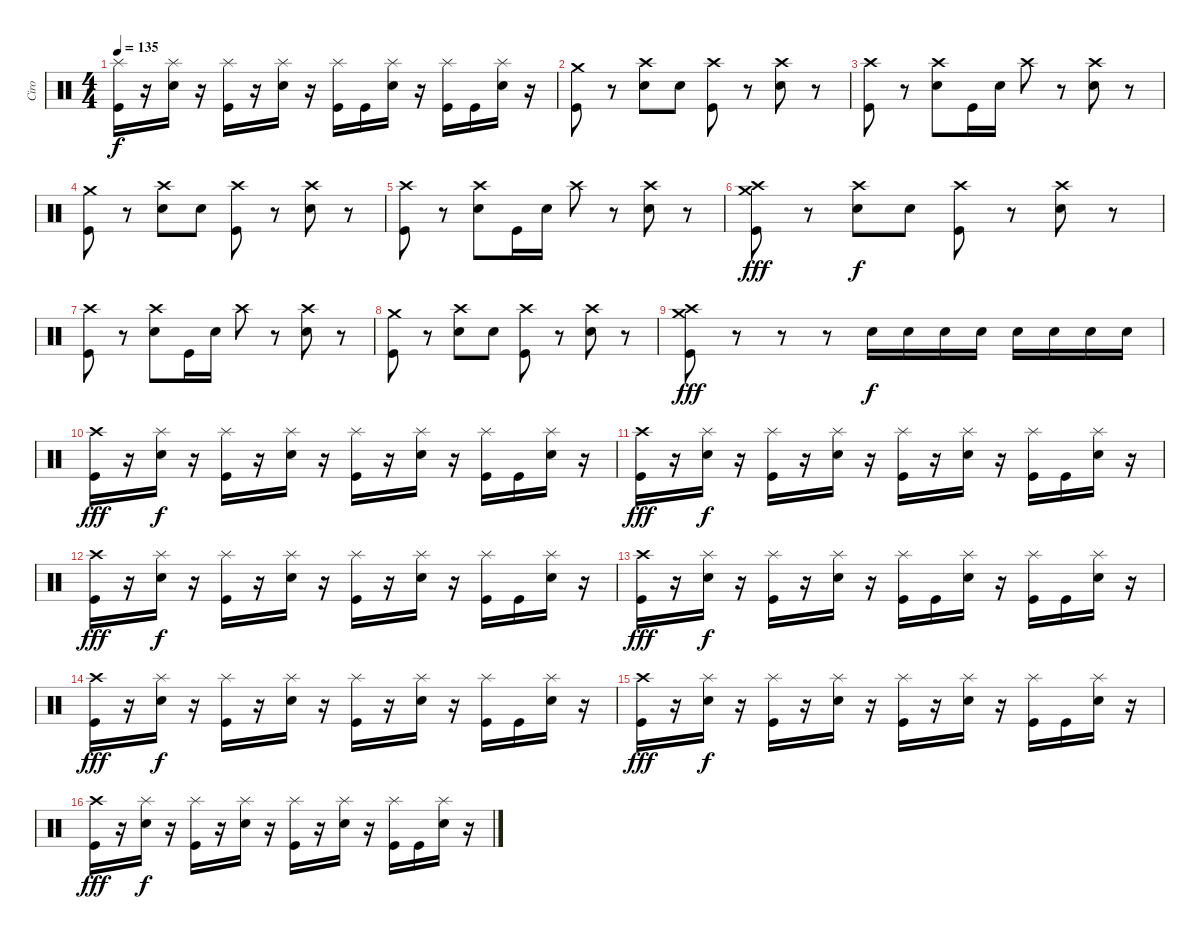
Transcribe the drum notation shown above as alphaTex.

\track ("Ciro" "Ciro") {instrument percussion}
\staff {score}
\articulation defaults
\ts (4 4)
\tempo 135
\clef neutral
\ks c
("Splash (hit)" "Kick (hit)").16{dy f} r.16 ("Splash (hit)" "Electric Snare (hit)").16 r.16 ("Splash (hit)" "Kick (hit)").16 r.16 ("Splash (hit)" "Electric Snare (hit)").16 r.16 ("Splash (hit)" "Kick (hit)").16 "Kick (hit)".16 ("Splash (hit)" "Electric Snare (hit)").16 r.16 ("Splash (hit)" "Kick (hit)").16 "Kick (hit)".16 ("Splash (hit)" "Electric Snare (hit)").16 r.16 |
("Crash medium (hit)" "Kick (hit)").8 r.8 ("Crash high (hit)" "Electric Snare (hit)").8 "Electric Snare (hit)".8 ("Crash high (hit)" "Kick (hit)").8 r.8 ("Crash high (hit)" "Electric Snare (hit)").8 r.8 |
("Crash high (hit)" "Kick (hit)").8 r.8 ("Crash high (hit)" "Electric Snare (hit)").8 "Kick (hit)".16 "Electric Snare (hit)".16 "Crash high (hit)".8 r.8 ("Crash high (hit)" "Electric Snare (hit)").8 r.8 |
("Crash medium (hit)" "Kick (hit)").8 r.8 ("Crash high (hit)" "Electric Snare (hit)").8 "Electric Snare (hit)".8 ("Crash high (hit)" "Kick (hit)").8 r.8 ("Crash high (hit)" "Electric Snare (hit)").8 r.8 |
("Crash high (hit)" "Kick (hit)").8 r.8 ("Crash high (hit)" "Electric Snare (hit)").8 "Kick (hit)".16 "Electric Snare (hit)".16 "Crash high (hit)".8 r.8 ("Crash high (hit)" "Electric Snare (hit)").8 r.8 |
("Crash medium (hit)" "Crash high (hit)" "Kick (hit)").8{dy fff} r.8 ("Crash high (hit)" "Electric Snare (hit)").8{dy f} "Electric Snare (hit)".8 ("Crash high (hit)" "Kick (hit)").8 r.8 ("Crash high (hit)" "Electric Snare (hit)").8 r.8 |
("Crash high (hit)" "Kick (hit)").8 r.8 ("Crash high (hit)" "Electric Snare (hit)").8 "Kick (hit)".16 "Electric Snare (hit)".16 "Crash high (hit)".8 r.8 ("Crash high (hit)" "Electric Snare (hit)").8 r.8 |
("Crash medium (hit)" "Kick (hit)").8 r.8 ("Crash high (hit)" "Electric Snare (hit)").8 "Electric Snare (hit)".8 ("Crash high (hit)" "Kick (hit)").8 r.8 ("Crash high (hit)" "Electric Snare (hit)").8 r.8 |
("Crash high (hit)" "Crash medium (hit)" "Kick (hit)").8{dy fff} r.8 r.8 r.8 "Electric Snare (hit)".16{dy f} "Electric Snare (hit)".16 "Electric Snare (hit)".16 "Electric Snare (hit)".16 "Electric Snare (hit)".16 "Electric Snare (hit)".16 "Electric Snare (hit)".16 "Electric Snare (hit)".16 |
("Crash high (hit)" "Kick (hit)").16{dy fff} r.16 ("Splash (hit)" "Electric Snare (hit)").16{dy f} r.16 ("Splash (hit)" "Kick (hit)").16 r.16 ("Splash (hit)" "Electric Snare (hit)").16 r.16 ("Splash (hit)" "Kick (hit)").16 r.16 ("Splash (hit)" "Electric Snare (hit)").16 r.16 ("Splash (hit)" "Kick (hit)").16 "Kick (hit)".16 ("Splash (hit)" "Electric Snare (hit)").16 r.16 |
("Crash high (hit)" "Kick (hit)").16{dy fff} r.16 ("Splash (hit)" "Electric Snare (hit)").16{dy f} r.16 ("Splash (hit)" "Kick (hit)").16 r.16 ("Splash (hit)" "Electric Snare (hit)").16 r.16 ("Splash (hit)" "Kick (hit)").16 r.16 ("Splash (hit)" "Electric Snare (hit)").16 r.16 ("Splash (hit)" "Kick (hit)").16 "Kick (hit)".16 ("Splash (hit)" "Electric Snare (hit)").16 r.16 |
("Crash high (hit)" "Kick (hit)").16{dy fff} r.16 ("Splash (hit)" "Electric Snare (hit)").16{dy f} r.16 ("Splash (hit)" "Kick (hit)").16 r.16 ("Splash (hit)" "Electric Snare (hit)").16 r.16 ("Splash (hit)" "Kick (hit)").16 r.16 ("Splash (hit)" "Electric Snare (hit)").16 r.16 ("Splash (hit)" "Kick (hit)").16 "Kick (hit)".16 ("Splash (hit)" "Electric Snare (hit)").16 r.16 |
("Crash high (hit)" "Kick (hit)").16{dy fff} r.16 ("Splash (hit)" "Electric Snare (hit)").16{dy f} r.16 ("Splash (hit)" "Kick (hit)").16 r.16 ("Splash (hit)" "Electric Snare (hit)").16 r.16 ("Splash (hit)" "Kick (hit)").16 "Kick (hit)".16 ("Splash (hit)" "Electric Snare (hit)").16 r.16 ("Splash (hit)" "Kick (hit)").16 "Kick (hit)".16 ("Splash (hit)" "Electric Snare (hit)").16 r.16 |
("Crash high (hit)" "Kick (hit)").16{dy fff} r.16 ("Splash (hit)" "Electric Snare (hit)").16{dy f} r.16 ("Splash (hit)" "Kick (hit)").16 r.16 ("Splash (hit)" "Electric Snare (hit)").16 r.16 ("Splash (hit)" "Kick (hit)").16 r.16 ("Splash (hit)" "Electric Snare (hit)").16 r.16 ("Splash (hit)" "Kick (hit)").16 "Kick (hit)".16 ("Splash (hit)" "Electric Snare (hit)").16 r.16 |
("Crash high (hit)" "Kick (hit)").16{dy fff} r.16 ("Splash (hit)" "Electric Snare (hit)").16{dy f} r.16 ("Splash (hit)" "Kick (hit)").16 r.16 ("Splash (hit)" "Electric Snare (hit)").16 r.16 ("Splash (hit)" "Kick (hit)").16 r.16 ("Splash (hit)" "Electric Snare (hit)").16 r.16 ("Splash (hit)" "Kick (hit)").16 "Kick (hit)".16 ("Splash (hit)" "Electric Snare (hit)").16 r.16 |
("Crash high (hit)" "Kick (hit)").16{dy fff} r.16 ("Splash (hit)" "Electric Snare (hit)").16{dy f} r.16 ("Splash (hit)" "Kick (hit)").16 r.16 ("Splash (hit)" "Electric Snare (hit)").16 r.16 ("Splash (hit)" "Kick (hit)").16 r.16 ("Splash (hit)" "Electric Snare (hit)").16 r.16 ("Splash (hit)" "Kick (hit)").16 "Kick (hit)".16 ("Splash (hit)" "Electric Snare (hit)").16 r.16
